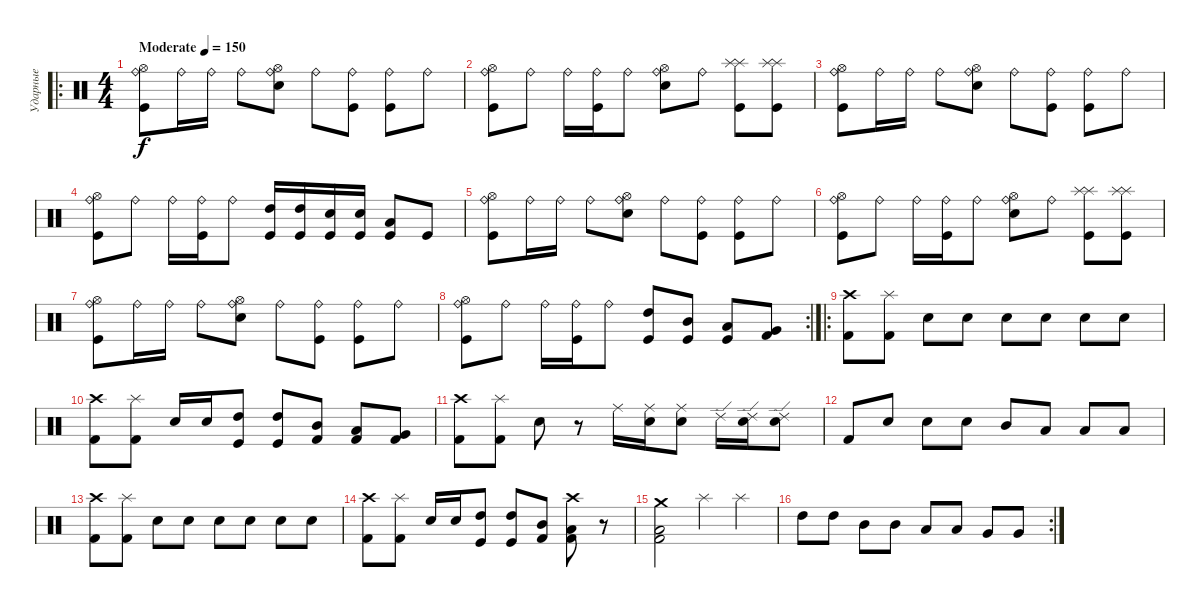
\track ("Ударные" "Ударные") {instrument percussion}
\staff {score}
\articulation defaults
\ro
\ts (4 4)
\tempo (150 "Moderate")
\clef neutral
\ks c
("Hi-Hat (open)" "Ride (bell)" "Kick (hit)").8{dy f} "Ride (bell)".16 "Ride (bell)".16 "Ride (bell)".8 ("Snare (hit) 2" "Hi-Hat (open)" "Ride (bell)").8 "Ride (bell)".8 ("Ride (bell)" "Kick (hit)").8 ("Ride (bell)" "Kick (hit)").8 "Ride (bell)".8 |
("Hi-Hat (open)" "Ride (bell)" "Kick (hit)").8 "Ride (bell)".8 "Ride (bell)".16 ("Ride (bell)" "Kick (hit)").16 "Ride (bell)".8 ("Hi-Hat (open)" "Snare (hit) 2" "Ride (bell)").8 "Ride (bell)".8 ("Splash (hit)" "Splash (hit)" "Kick (hit)").8 ("Splash (hit)" "Splash (hit)" "Kick (hit)").8 |
("Hi-Hat (open)" "Ride (bell)" "Kick (hit)").8 "Ride (bell)".16 "Ride (bell)".16 "Ride (bell)".8 ("Snare (hit) 2" "Hi-Hat (open)" "Ride (bell)").8 "Ride (bell)".8 ("Ride (bell)" "Kick (hit)").8 ("Ride (bell)" "Kick (hit)").8 "Ride (bell)".8 |
("Hi-Hat (open)" "Ride (bell)" "Kick (hit)").8 "Ride (bell)".8 "Ride (bell)".16 ("Ride (bell)" "Kick (hit)").16 "Ride (bell)".8 ("High Tom (hit)" "Kick (hit)").16 ("High Tom (hit)" "Kick (hit)").16 ("Snare (hit) 2" "Kick (hit)").16 ("Snare (hit) 2" "Kick (hit)").16 ("Low Tom (hit)" "Kick (hit)").8 "Kick (hit)".8 |
("Hi-Hat (open)" "Ride (bell)" "Kick (hit)").8 "Ride (bell)".16 "Ride (bell)".16 "Ride (bell)".8 ("Snare (hit) 2" "Hi-Hat (open)" "Ride (bell)").8 "Ride (bell)".8 ("Ride (bell)" "Kick (hit)").8 ("Ride (bell)" "Kick (hit)").8 "Ride (bell)".8 |
("Hi-Hat (open)" "Ride (bell)" "Kick (hit)").8 "Ride (bell)".8 "Ride (bell)".16 ("Ride (bell)" "Kick (hit)").16 "Ride (bell)".8 ("Hi-Hat (open)" "Snare (hit) 2" "Ride (bell)").8 "Ride (bell)".8 ("Splash (hit)" "Splash (hit)" "Kick (hit)").8 ("Splash (hit)" "Splash (hit)" "Kick (hit)").8 |
("Hi-Hat (open)" "Ride (bell)" "Kick (hit)").8 "Ride (bell)".16 "Ride (bell)".16 "Ride (bell)".8 ("Snare (hit) 2" "Hi-Hat (open)" "Ride (bell)").8 "Ride (bell)".8 ("Ride (bell)" "Kick (hit)").8 ("Ride (bell)" "Kick (hit)").8 "Ride (bell)".8 |
\rc 2
("Hi-Hat (open)" "Ride (bell)" "Kick (hit)").8 "Ride (bell)".8 "Ride (bell)".16 ("Ride (bell)" "Kick (hit)").16 "Ride (bell)".8 ("High Tom (hit)" "Kick (hit)").8 ("Mid Tom (hit)" "Kick (hit)").8 ("Low Tom (hit)" "Kick (hit)").8 ("Very Low Tom (hit)" "Kick (hit) 2").8 |
\ro
("Crash high (hit)" "Kick (hit) 2").8{volume 16} ("Splash (hit)" "Kick (hit) 2").8 "Snare (hit)".8 "Snare (hit)".8 "Snare (hit)".8 "Snare (hit)".8 "Snare (hit)".8 "Snare (hit)".8 |
("Crash high (hit)" "Kick (hit) 2").8 ("Splash (hit)" "Kick (hit) 2").8 "Snare (hit) 2".16 "Snare (hit) 2".16 ("High Tom (hit)" "Kick (hit)").8 ("High Tom (hit)" "Kick (hit)").8 ("Mid Tom (hit)" "Kick (hit) 2").8 ("Low Tom (hit)" "Kick (hit) 2").8 ("Very Low Tom (hit)" "Kick (hit) 2").8 |
("Crash high (hit)" "Kick (hit) 2").8{volume 16} ("Splash (hit)" "Kick (hit) 2").8 "Snare (hit)".8 r.8 "Ride (middle)".16 ("Ride (middle)" "Snare (hit)").16 ("Ride (middle)" "Snare (hit)").8 "Ride (edge) 2".16 ("Ride (edge) 2" "Snare (hit)").16 ("Ride (edge) 2" "Snare (hit)").8 |
"Kick (hit) 2".8 "Snare (hit) 2".8 "Snare (hit) 2".8 "Snare (hit) 2".8 "Mid Tom (hit)".8 "Low Tom (hit)".8 "Low Tom (hit)".8 "Low Floor Tom (hit)".8 |
("Crash high (hit)" "Kick (hit) 2").8 ("Splash (hit)" "Kick (hit) 2").8 "Snare (hit)".8 "Snare (hit)".8 "Snare (hit)".8 "Snare (hit)".8 "Snare (hit)".8 "Snare (hit)".8 |
("Crash high (hit)" "Kick (hit) 2").8 ("Splash (hit)" "Kick (hit) 2").8 "Snare (hit) 2".16 "Snare (hit) 2".16 ("High Tom (hit)" "Kick (hit)").8 ("High Tom (hit)" "Kick (hit)").8 ("Mid Tom (hit)" "Kick (hit) 2").8 ("Crash high (hit)" "Low Tom (hit)" "Kick (hit) 2").8 r.8 |
("Crash medium (hit)" "Low Tom (hit)" "Kick (hit) 2").2 "Splash (hit)".4 "Splash (hit)".4 |
\rc 2 "High Tom (hit)".8 "High Tom (hit)".8 "Mid Tom (hit)".8 "Mid Tom (hit)".8 "Low Tom (hit)".8 "Low Tom (hit)".8 "Very Low Tom (hit)".8 "Very Low Tom (hit)".8
